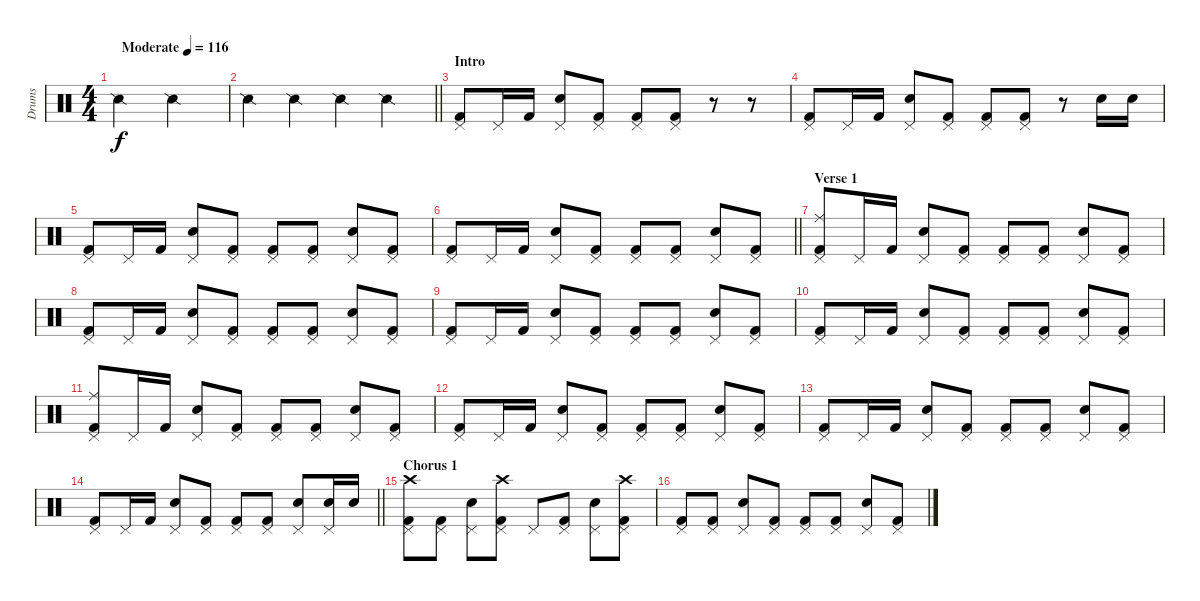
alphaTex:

\track ("Drums" "Drums") {instrument percussion}
\staff {score}
\articulation defaults
\ts (4 4)
\tempo (116 "Moderate")
\clef neutral
\ks c "Snare (side stick) 2".2{dy f} "Snare (side stick) 2".2
|
\barLineRight lightlight "Snare (side stick) 2".4 "Snare (side stick) 2".4 "Snare (side stick) 2".4 "Snare (side stick) 2".4
|
\section ("" "Intro")
("Pedal Hi-Hat (hit)" "Kick (hit) 2").8 "Pedal Hi-Hat (hit)".16 "Kick (hit) 2".16 ("Pedal Hi-Hat (hit)" "Electric Snare (hit)").8 ("Pedal Hi-Hat (hit)" "Kick (hit) 2").8 ("Pedal Hi-Hat (hit)" "Kick (hit) 2").8 ("Pedal Hi-Hat (hit)" "Kick (hit) 2").8 r.8 r.8 |
("Pedal Hi-Hat (hit)" "Kick (hit) 2").8 "Pedal Hi-Hat (hit)".16 "Kick (hit) 2".16 ("Pedal Hi-Hat (hit)" "Electric Snare (hit)").8 ("Pedal Hi-Hat (hit)" "Kick (hit) 2").8 ("Pedal Hi-Hat (hit)" "Kick (hit) 2").8 ("Pedal Hi-Hat (hit)" "Kick (hit) 2").8 r.8 "Electric Snare (hit)".16 "Electric Snare (hit)".16 |
("Pedal Hi-Hat (hit)" "Kick (hit) 2").8 "Pedal Hi-Hat (hit)".16 "Kick (hit) 2".16 ("Pedal Hi-Hat (hit)" "Electric Snare (hit)").8 ("Pedal Hi-Hat (hit)" "Kick (hit) 2").8 ("Pedal Hi-Hat (hit)" "Kick (hit) 2").8 ("Pedal Hi-Hat (hit)" "Kick (hit) 2").8 ("Pedal Hi-Hat (hit)" "Electric Snare (hit)").8 ("Pedal Hi-Hat (hit)" "Kick (hit) 2").8 |
\barLineRight lightlight
("Pedal Hi-Hat (hit)" "Kick (hit) 2").8 "Pedal Hi-Hat (hit)".16 "Kick (hit) 2".16 ("Pedal Hi-Hat (hit)" "Electric Snare (hit)").8 ("Pedal Hi-Hat (hit)" "Kick (hit) 2").8 ("Pedal Hi-Hat (hit)" "Kick (hit) 2").8 ("Pedal Hi-Hat (hit)" "Kick (hit) 2").8 ("Pedal Hi-Hat (hit)" "Electric Snare (hit)").8 ("Pedal Hi-Hat (hit)" "Kick (hit) 2").8 |
\section ("" "Verse 1")
("Pedal Hi-Hat (hit)" "Ride (middle)" "Kick (hit) 2").8 "Pedal Hi-Hat (hit)".16 "Kick (hit) 2".16 ("Pedal Hi-Hat (hit)" "Electric Snare (hit)").8 ("Pedal Hi-Hat (hit)" "Kick (hit) 2").8 ("Pedal Hi-Hat (hit)" "Kick (hit) 2").8 ("Pedal Hi-Hat (hit)" "Kick (hit) 2").8 ("Pedal Hi-Hat (hit)" "Electric Snare (hit)").8 ("Pedal Hi-Hat (hit)" "Kick (hit) 2").8 |
("Pedal Hi-Hat (hit)" "Kick (hit) 2").8 "Pedal Hi-Hat (hit)".16 "Kick (hit) 2".16 ("Pedal Hi-Hat (hit)" "Electric Snare (hit)").8 ("Pedal Hi-Hat (hit)" "Kick (hit) 2").8 ("Pedal Hi-Hat (hit)" "Kick (hit) 2").8 ("Pedal Hi-Hat (hit)" "Kick (hit) 2").8 ("Pedal Hi-Hat (hit)" "Electric Snare (hit)").8 ("Pedal Hi-Hat (hit)" "Kick (hit) 2").8 |
("Pedal Hi-Hat (hit)" "Kick (hit) 2").8 "Pedal Hi-Hat (hit)".16 "Kick (hit) 2".16 ("Pedal Hi-Hat (hit)" "Electric Snare (hit)").8 ("Pedal Hi-Hat (hit)" "Kick (hit) 2").8 ("Pedal Hi-Hat (hit)" "Kick (hit) 2").8 ("Pedal Hi-Hat (hit)" "Kick (hit) 2").8 ("Pedal Hi-Hat (hit)" "Electric Snare (hit)").8 ("Pedal Hi-Hat (hit)" "Kick (hit) 2").8 |
("Pedal Hi-Hat (hit)" "Kick (hit) 2").8 "Pedal Hi-Hat (hit)".16 "Kick (hit) 2".16 ("Pedal Hi-Hat (hit)" "Electric Snare (hit)").8 ("Pedal Hi-Hat (hit)" "Kick (hit) 2").8 ("Pedal Hi-Hat (hit)" "Kick (hit) 2").8 ("Pedal Hi-Hat (hit)" "Kick (hit) 2").8 ("Pedal Hi-Hat (hit)" "Electric Snare (hit)").8 ("Pedal Hi-Hat (hit)" "Kick (hit) 2").8 |
("Pedal Hi-Hat (hit)" "Ride (middle)" "Kick (hit) 2").8 "Pedal Hi-Hat (hit)".16 "Kick (hit) 2".16 ("Pedal Hi-Hat (hit)" "Electric Snare (hit)").8 ("Pedal Hi-Hat (hit)" "Kick (hit) 2").8 ("Pedal Hi-Hat (hit)" "Kick (hit) 2").8 ("Pedal Hi-Hat (hit)" "Kick (hit) 2").8 ("Pedal Hi-Hat (hit)" "Electric Snare (hit)").8 ("Pedal Hi-Hat (hit)" "Kick (hit) 2").8 |
("Pedal Hi-Hat (hit)" "Kick (hit) 2").8 "Pedal Hi-Hat (hit)".16 "Kick (hit) 2".16 ("Pedal Hi-Hat (hit)" "Electric Snare (hit)").8 ("Pedal Hi-Hat (hit)" "Kick (hit) 2").8 ("Pedal Hi-Hat (hit)" "Kick (hit) 2").8 ("Pedal Hi-Hat (hit)" "Kick (hit) 2").8 ("Pedal Hi-Hat (hit)" "Electric Snare (hit)").8 ("Pedal Hi-Hat (hit)" "Kick (hit) 2").8 |
("Pedal Hi-Hat (hit)" "Kick (hit) 2").8 "Pedal Hi-Hat (hit)".16 "Kick (hit) 2".16 ("Pedal Hi-Hat (hit)" "Electric Snare (hit)").8 ("Pedal Hi-Hat (hit)" "Kick (hit) 2").8 ("Pedal Hi-Hat (hit)" "Kick (hit) 2").8 ("Pedal Hi-Hat (hit)" "Kick (hit) 2").8 ("Pedal Hi-Hat (hit)" "Electric Snare (hit)").8 ("Pedal Hi-Hat (hit)" "Kick (hit) 2").8 |
\barLineRight lightlight
("Pedal Hi-Hat (hit)" "Kick (hit) 2").8 "Pedal Hi-Hat (hit)".16 "Kick (hit) 2".16 ("Pedal Hi-Hat (hit)" "Electric Snare (hit)").8 ("Pedal Hi-Hat (hit)" "Kick (hit) 2").8 ("Pedal Hi-Hat (hit)" "Kick (hit) 2").8 ("Pedal Hi-Hat (hit)" "Kick (hit) 2").8 ("Pedal Hi-Hat (hit)" "Electric Snare (hit)").8 ("Pedal Hi-Hat (hit)" "Electric Snare (hit)").16 "Electric Snare (hit)".16 |
\section ("" "Chorus 1")
("Pedal Hi-Hat (hit)" "Crash high (hit)" "Kick (hit) 2").8 ("Pedal Hi-Hat (hit)" "Kick (hit) 2").8 ("Pedal Hi-Hat (hit)" "Electric Snare (hit)").8 ("Pedal Hi-Hat (hit)" "Crash high (hit)" "Kick (hit) 2").8 "Pedal Hi-Hat (hit)".8 ("Pedal Hi-Hat (hit)" "Kick (hit) 2").8 ("Pedal Hi-Hat (hit)" "Electric Snare (hit)").8 ("Pedal Hi-Hat (hit)" "Crash high (hit)" "Kick (hit) 2").8 |
("Pedal Hi-Hat (hit)" "Kick (hit) 2").8 ("Pedal Hi-Hat (hit)" "Kick (hit) 2").8 ("Pedal Hi-Hat (hit)" "Electric Snare (hit)").8 ("Pedal Hi-Hat (hit)" "Kick (hit) 2").8 ("Pedal Hi-Hat (hit)" "Kick (hit) 2").8 ("Pedal Hi-Hat (hit)" "Kick (hit) 2").8 ("Pedal Hi-Hat (hit)" "Electric Snare (hit)").8 ("Pedal Hi-Hat (hit)" "Kick (hit) 2").8
